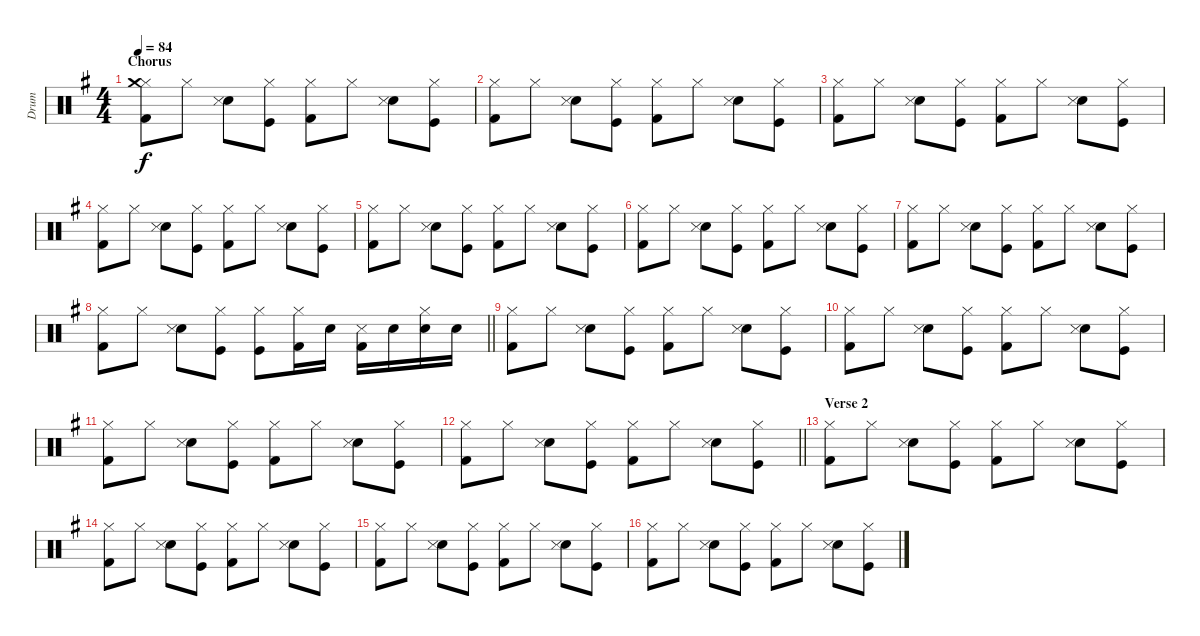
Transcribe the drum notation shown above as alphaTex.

\track ("Drum" "Drum") {instrument percussion}
\staff {score}
\articulation defaults
\ts (4 4)
\section ("" "Chorus")
\tempo 84
\clef neutral
\ks g
("Kick (hit) 2" "Hi-Hat (closed)" "Crash medium (hit)").8{dy f} "Hi-Hat (closed)".8 ("Electric Snare (hit)" "Snare (side stick) 3").8 ("Kick (hit)" "Hi-Hat (closed)").8 ("Kick (hit) 2" "Hi-Hat (closed)").8 "Hi-Hat (closed)".8 ("Electric Snare (hit)" "Snare (side stick) 3").8 ("Kick (hit)" "Hi-Hat (closed)").8 |
("Kick (hit) 2" "Hi-Hat (closed)").8 "Hi-Hat (closed)".8 ("Electric Snare (hit)" "Snare (side stick) 3").8 ("Kick (hit)" "Hi-Hat (closed)").8 ("Kick (hit) 2" "Hi-Hat (closed)").8 "Hi-Hat (closed)".8 ("Electric Snare (hit)" "Snare (side stick) 3").8 ("Kick (hit)" "Hi-Hat (closed)").8 |
("Kick (hit) 2" "Hi-Hat (closed)").8 "Hi-Hat (closed)".8 ("Electric Snare (hit)" "Snare (side stick) 3").8 ("Kick (hit)" "Hi-Hat (closed)").8 ("Kick (hit) 2" "Hi-Hat (closed)").8 "Hi-Hat (closed)".8 ("Electric Snare (hit)" "Snare (side stick) 3").8 ("Kick (hit)" "Hi-Hat (closed)").8 |
("Kick (hit) 2" "Hi-Hat (closed)").8 "Hi-Hat (closed)".8 ("Electric Snare (hit)" "Snare (side stick) 3").8 ("Kick (hit)" "Hi-Hat (closed)").8 ("Kick (hit) 2" "Hi-Hat (closed)").8 "Hi-Hat (closed)".8 ("Electric Snare (hit)" "Snare (side stick) 3").8 ("Kick (hit)" "Hi-Hat (closed)").8 |
("Kick (hit) 2" "Hi-Hat (closed)").8 "Hi-Hat (closed)".8 ("Electric Snare (hit)" "Snare (side stick) 3").8 ("Kick (hit)" "Hi-Hat (closed)").8 ("Kick (hit) 2" "Hi-Hat (closed)").8 "Hi-Hat (closed)".8 ("Electric Snare (hit)" "Snare (side stick) 3").8 ("Kick (hit)" "Hi-Hat (closed)").8 |
("Kick (hit) 2" "Hi-Hat (closed)").8 "Hi-Hat (closed)".8 ("Electric Snare (hit)" "Snare (side stick) 3").8 ("Kick (hit)" "Hi-Hat (closed)").8 ("Kick (hit) 2" "Hi-Hat (closed)").8 "Hi-Hat (closed)".8 ("Electric Snare (hit)" "Snare (side stick) 3").8 ("Kick (hit)" "Hi-Hat (closed)").8 |
("Kick (hit) 2" "Hi-Hat (closed)").8 "Hi-Hat (closed)".8 ("Electric Snare (hit)" "Snare (side stick) 3").8 ("Kick (hit)" "Hi-Hat (closed)").8 ("Kick (hit) 2" "Hi-Hat (closed)").8 "Hi-Hat (closed)".8 ("Electric Snare (hit)" "Snare (side stick) 3").8 ("Kick (hit)" "Hi-Hat (closed)").8 |
\barLineRight lightlight
("Kick (hit) 2" "Hi-Hat (closed)").8 "Hi-Hat (closed)".8 ("Electric Snare (hit)" "Snare (side stick) 3").8 ("Kick (hit)" "Hi-Hat (closed)").8 ("Kick (hit)" "Hi-Hat (closed)").8 ("Kick (hit) 2" "Hi-Hat (closed)").16 "Electric Snare (hit)".16 ("Kick (hit) 2" "Snare (side stick) 3").16 "Electric Snare (hit)".16 ("Electric Snare (hit)" "Hi-Hat (closed)").16 "Electric Snare (hit)".16 |
("Kick (hit) 2" "Hi-Hat (closed)").8 "Hi-Hat (closed)".8 ("Electric Snare (hit)" "Snare (side stick) 3").8 ("Kick (hit)" "Hi-Hat (closed)").8 ("Kick (hit) 2" "Hi-Hat (closed)").8 "Hi-Hat (closed)".8 ("Electric Snare (hit)" "Snare (side stick) 3").8 ("Kick (hit)" "Hi-Hat (closed)").8 |
("Kick (hit) 2" "Hi-Hat (closed)").8 "Hi-Hat (closed)".8 ("Electric Snare (hit)" "Snare (side stick) 3").8 ("Kick (hit)" "Hi-Hat (closed)").8 ("Kick (hit) 2" "Hi-Hat (closed)").8 "Hi-Hat (closed)".8 ("Electric Snare (hit)" "Snare (side stick) 3").8 ("Kick (hit)" "Hi-Hat (closed)").8 |
("Kick (hit) 2" "Hi-Hat (closed)").8 "Hi-Hat (closed)".8 ("Electric Snare (hit)" "Snare (side stick) 3").8 ("Kick (hit)" "Hi-Hat (closed)").8 ("Kick (hit) 2" "Hi-Hat (closed)").8 "Hi-Hat (closed)".8 ("Electric Snare (hit)" "Snare (side stick) 3").8 ("Kick (hit)" "Hi-Hat (closed)").8 |
\barLineRight lightlight
("Kick (hit) 2" "Hi-Hat (closed)").8 "Hi-Hat (closed)".8 ("Electric Snare (hit)" "Snare (side stick) 3").8 ("Kick (hit)" "Hi-Hat (closed)").8 ("Kick (hit) 2" "Hi-Hat (closed)").8 "Hi-Hat (closed)".8 ("Electric Snare (hit)" "Snare (side stick) 3").8 ("Kick (hit)" "Hi-Hat (closed)").8 |
\section ("" "Verse 2")
("Kick (hit) 2" "Hi-Hat (closed)").8 "Hi-Hat (closed)".8 ("Electric Snare (hit)" "Snare (side stick) 3").8 ("Kick (hit)" "Hi-Hat (closed)").8 ("Kick (hit) 2" "Hi-Hat (closed)").8 "Hi-Hat (closed)".8 ("Electric Snare (hit)" "Snare (side stick) 3").8 ("Kick (hit)" "Hi-Hat (closed)").8 |
("Kick (hit) 2" "Hi-Hat (closed)").8 "Hi-Hat (closed)".8 ("Electric Snare (hit)" "Snare (side stick) 3").8 ("Kick (hit)" "Hi-Hat (closed)").8 ("Kick (hit) 2" "Hi-Hat (closed)").8 "Hi-Hat (closed)".8 ("Electric Snare (hit)" "Snare (side stick) 3").8 ("Kick (hit)" "Hi-Hat (closed)").8 |
("Kick (hit) 2" "Hi-Hat (closed)").8 "Hi-Hat (closed)".8 ("Electric Snare (hit)" "Snare (side stick) 3").8 ("Kick (hit)" "Hi-Hat (closed)").8 ("Kick (hit) 2" "Hi-Hat (closed)").8 "Hi-Hat (closed)".8 ("Electric Snare (hit)" "Snare (side stick) 3").8 ("Kick (hit)" "Hi-Hat (closed)").8 |
("Kick (hit) 2" "Hi-Hat (closed)").8 "Hi-Hat (closed)".8 ("Electric Snare (hit)" "Snare (side stick) 3").8 ("Kick (hit)" "Hi-Hat (closed)").8 ("Kick (hit) 2" "Hi-Hat (closed)").8 "Hi-Hat (closed)".8 ("Electric Snare (hit)" "Snare (side stick) 3").8 ("Kick (hit)" "Hi-Hat (closed)").8
